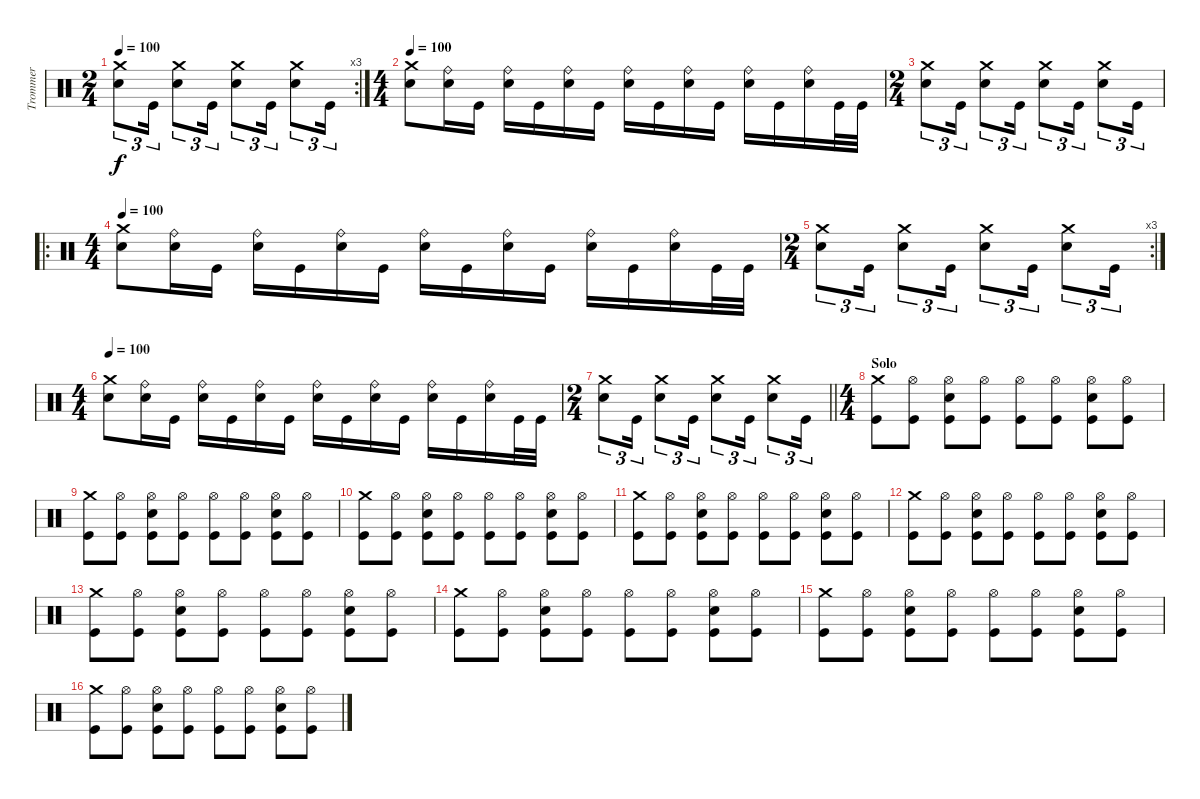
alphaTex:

\track ("Trommer" "Trommer") {instrument percussion}
\staff {score}
\articulation defaults
\rc 3
\ts (2 4)
\tempo 100
\clef neutral
\ks c
("Crash medium (hit)" "Snare (hit) 2").8{tu (3 2) dy f} "Kick (hit)".16{tu (3 2)} ("Crash medium (hit)" "Snare (hit) 2").8{tu (3 2)} "Kick (hit)".16{tu (3 2)} ("Crash medium (hit)" "Snare (hit) 2").8{tu (3 2)} "Kick (hit)".16{tu (3 2)} ("Crash medium (hit)" "Snare (hit) 2").8{tu (3 2)} "Kick (hit)".16{tu (3 2)} |
\ts (4 4)
\tempo 100
("Crash medium (hit)" "Snare (hit) 2").8 ("Ride (bell)" "Snare (hit) 2").16 "Kick (hit)".16 ("Ride (bell)" "Snare (hit) 2").16 "Kick (hit)".16 ("Ride (bell)" "Snare (hit) 2").16 "Kick (hit)".16 ("Ride (bell)" "Snare (hit) 2").16 "Kick (hit)".16 ("Ride (bell)" "Snare (hit) 2").16 "Kick (hit)".16 ("Ride (bell)" "Snare (hit) 2").16 "Kick (hit)".16 ("Ride (bell)" "Snare (hit) 2").16 "Kick (hit)".32 "Kick (hit)".32 |
\ts (2 4)
("Crash medium (hit)" "Snare (hit) 2").8{tu (3 2)} "Kick (hit)".16{tu (3 2)} ("Crash medium (hit)" "Snare (hit) 2").8{tu (3 2)} "Kick (hit)".16{tu (3 2)} ("Crash medium (hit)" "Snare (hit) 2").8{tu (3 2)} "Kick (hit)".16{tu (3 2)} ("Crash medium (hit)" "Snare (hit) 2").8{tu (3 2)} "Kick (hit)".16{tu (3 2)} |
\ro
\ts (4 4)
\tempo 100
("Crash medium (hit)" "Snare (hit) 2").8 ("Ride (bell)" "Snare (hit) 2").16 "Kick (hit)".16 ("Ride (bell)" "Snare (hit) 2").16 "Kick (hit)".16 ("Ride (bell)" "Snare (hit) 2").16 "Kick (hit)".16 ("Ride (bell)" "Snare (hit) 2").16 "Kick (hit)".16 ("Ride (bell)" "Snare (hit) 2").16 "Kick (hit)".16 ("Ride (bell)" "Snare (hit) 2").16 "Kick (hit)".16 ("Ride (bell)" "Snare (hit) 2").16 "Kick (hit)".32 "Kick (hit)".32 |
\rc 3
\ts (2 4)
("Crash medium (hit)" "Snare (hit) 2").8{tu (3 2)} "Kick (hit)".16{tu (3 2)} ("Crash medium (hit)" "Snare (hit) 2").8{tu (3 2)} "Kick (hit)".16{tu (3 2)} ("Crash medium (hit)" "Snare (hit) 2").8{tu (3 2)} "Kick (hit)".16{tu (3 2)} ("Crash medium (hit)" "Snare (hit) 2").8{tu (3 2)} "Kick (hit)".16{tu (3 2)} |
\ts (4 4)
\tempo 100
("Crash medium (hit)" "Snare (hit) 2").8 ("Ride (bell)" "Snare (hit) 2").16 "Kick (hit)".16 ("Ride (bell)" "Snare (hit) 2").16 "Kick (hit)".16 ("Ride (bell)" "Snare (hit) 2").16 "Kick (hit)".16 ("Ride (bell)" "Snare (hit) 2").16 "Kick (hit)".16 ("Ride (bell)" "Snare (hit) 2").16 "Kick (hit)".16 ("Ride (bell)" "Snare (hit) 2").16 "Kick (hit)".16 ("Ride (bell)" "Snare (hit) 2").16 "Kick (hit)".32 "Kick (hit)".32 |
\ts (2 4)
\barLineRight lightlight
("Crash medium (hit)" "Snare (hit) 2").8{tu (3 2)} "Kick (hit)".16{tu (3 2)} ("Crash medium (hit)" "Snare (hit) 2").8{tu (3 2)} "Kick (hit)".16{tu (3 2)} ("Crash medium (hit)" "Snare (hit) 2").8{tu (3 2)} "Kick (hit)".16{tu (3 2)} ("Crash medium (hit)" "Snare (hit) 2").8{tu (3 2)} "Kick (hit)".16{tu (3 2)} |
\ts (4 4)
\section ("" "Solo")
("Crash medium (hit)" "Kick (hit)").8 ("Hi-Hat (open)" "Kick (hit)").8 ("Hi-Hat (open)" "Snare (hit) 2" "Kick (hit)").8 ("Hi-Hat (open)" "Kick (hit)").8 ("Hi-Hat (open)" "Kick (hit)").8 ("Hi-Hat (open)" "Kick (hit)").8 ("Hi-Hat (open)" "Snare (hit) 2" "Kick (hit)").8 ("Hi-Hat (open)" "Kick (hit)").8 |
("Crash medium (hit)" "Kick (hit)").8 ("Hi-Hat (open)" "Kick (hit)").8 ("Hi-Hat (open)" "Snare (hit) 2" "Kick (hit)").8 ("Hi-Hat (open)" "Kick (hit)").8 ("Hi-Hat (open)" "Kick (hit)").8 ("Hi-Hat (open)" "Kick (hit)").8 ("Hi-Hat (open)" "Snare (hit) 2" "Kick (hit)").8 ("Hi-Hat (open)" "Kick (hit)").8 |
("Crash medium (hit)" "Kick (hit)").8 ("Hi-Hat (open)" "Kick (hit)").8 ("Hi-Hat (open)" "Snare (hit) 2" "Kick (hit)").8 ("Hi-Hat (open)" "Kick (hit)").8 ("Hi-Hat (open)" "Kick (hit)").8 ("Hi-Hat (open)" "Kick (hit)").8 ("Hi-Hat (open)" "Snare (hit) 2" "Kick (hit)").8 ("Hi-Hat (open)" "Kick (hit)").8 |
("Crash medium (hit)" "Kick (hit)").8 ("Hi-Hat (open)" "Kick (hit)").8 ("Hi-Hat (open)" "Snare (hit) 2" "Kick (hit)").8 ("Hi-Hat (open)" "Kick (hit)").8 ("Hi-Hat (open)" "Kick (hit)").8 ("Hi-Hat (open)" "Kick (hit)").8 ("Hi-Hat (open)" "Snare (hit) 2" "Kick (hit)").8 ("Hi-Hat (open)" "Kick (hit)").8 |
("Crash medium (hit)" "Kick (hit)").8 ("Hi-Hat (open)" "Kick (hit)").8 ("Hi-Hat (open)" "Snare (hit) 2" "Kick (hit)").8 ("Hi-Hat (open)" "Kick (hit)").8 ("Hi-Hat (open)" "Kick (hit)").8 ("Hi-Hat (open)" "Kick (hit)").8 ("Hi-Hat (open)" "Snare (hit) 2" "Kick (hit)").8 ("Hi-Hat (open)" "Kick (hit)").8 |
("Crash medium (hit)" "Kick (hit)").8 ("Hi-Hat (open)" "Kick (hit)").8 ("Hi-Hat (open)" "Snare (hit) 2" "Kick (hit)").8 ("Hi-Hat (open)" "Kick (hit)").8 ("Hi-Hat (open)" "Kick (hit)").8 ("Hi-Hat (open)" "Kick (hit)").8 ("Hi-Hat (open)" "Snare (hit) 2" "Kick (hit)").8 ("Hi-Hat (open)" "Kick (hit)").8 |
("Crash medium (hit)" "Kick (hit)").8 ("Hi-Hat (open)" "Kick (hit)").8 ("Hi-Hat (open)" "Snare (hit) 2" "Kick (hit)").8 ("Hi-Hat (open)" "Kick (hit)").8 ("Hi-Hat (open)" "Kick (hit)").8 ("Hi-Hat (open)" "Kick (hit)").8 ("Hi-Hat (open)" "Snare (hit) 2" "Kick (hit)").8 ("Hi-Hat (open)" "Kick (hit)").8 |
("Crash medium (hit)" "Kick (hit)").8 ("Hi-Hat (open)" "Kick (hit)").8 ("Hi-Hat (open)" "Snare (hit) 2" "Kick (hit)").8 ("Hi-Hat (open)" "Kick (hit)").8 ("Hi-Hat (open)" "Kick (hit)").8 ("Hi-Hat (open)" "Kick (hit)").8 ("Hi-Hat (open)" "Snare (hit) 2" "Kick (hit)").8 ("Hi-Hat (open)" "Kick (hit)").8 |
("Crash medium (hit)" "Kick (hit)").8 ("Hi-Hat (open)" "Kick (hit)").8 ("Hi-Hat (open)" "Snare (hit) 2" "Kick (hit)").8 ("Hi-Hat (open)" "Kick (hit)").8 ("Hi-Hat (open)" "Kick (hit)").8 ("Hi-Hat (open)" "Kick (hit)").8 ("Hi-Hat (open)" "Snare (hit) 2" "Kick (hit)").8 ("Hi-Hat (open)" "Kick (hit)").8
